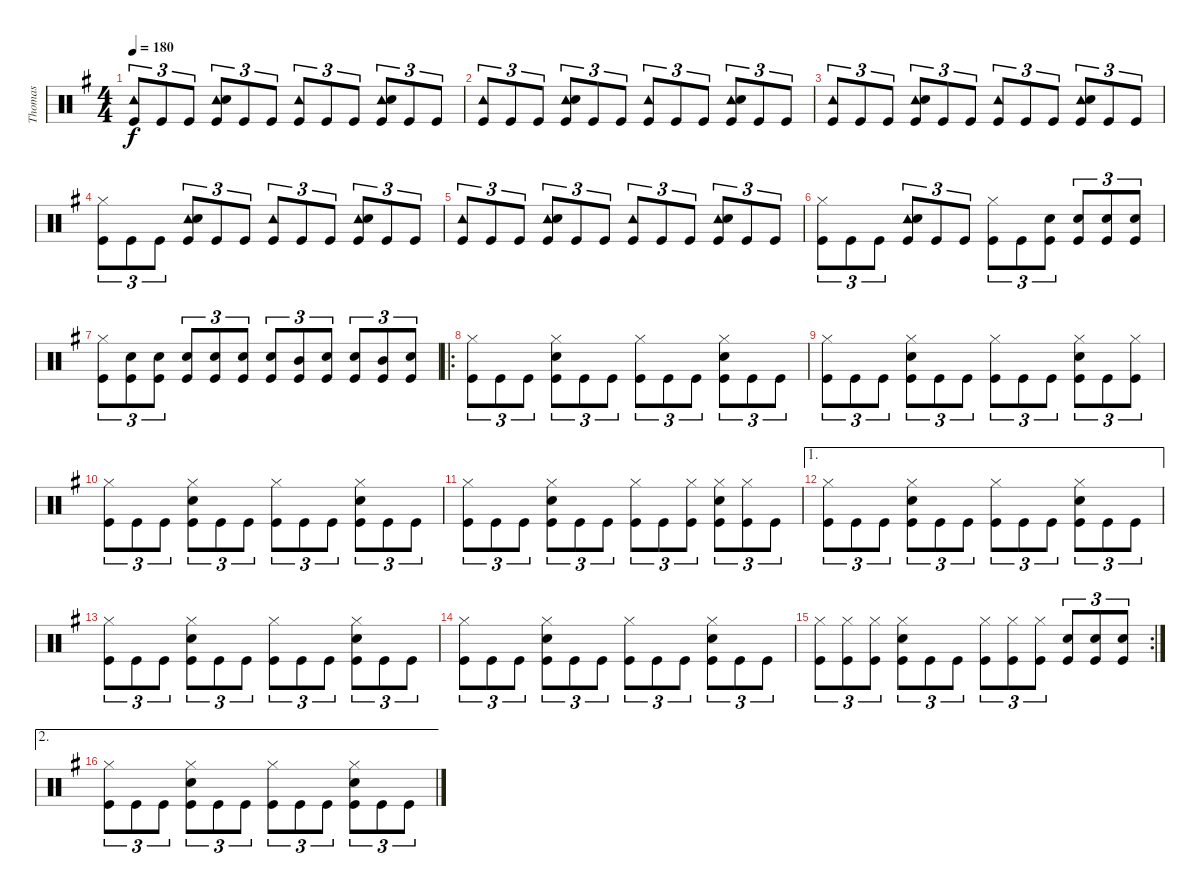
\track ("Thomas" "Thomas") {instrument percussion}
\staff {score}
\articulation defaults
\ts (4 4)
\tempo 180
\clef neutral
\ks g
("Tambourine (hit)" "Kick (hit)").8{tu (3 2) dy f} "Kick (hit)".8{tu (3 2)} "Kick (hit)".8{tu (3 2)} ("Tambourine (hit)" "Snare (hit) 2" "Kick (hit)").8{tu (3 2)} "Kick (hit)".8{tu (3 2)} "Kick (hit)".8{tu (3 2)} ("Tambourine (hit)" "Kick (hit)").8{tu (3 2)} "Kick (hit)".8{tu (3 2)} "Kick (hit)".8{tu (3 2)} ("Tambourine (hit)" "Snare (hit) 2" "Kick (hit)").8{tu (3 2)} "Kick (hit)".8{tu (3 2)} "Kick (hit)".8{tu (3 2)} |
("Tambourine (hit)" "Kick (hit)").8{tu (3 2)} "Kick (hit)".8{tu (3 2)} "Kick (hit)".8{tu (3 2)} ("Tambourine (hit)" "Snare (hit) 2" "Kick (hit)").8{tu (3 2)} "Kick (hit)".8{tu (3 2)} "Kick (hit)".8{tu (3 2)} ("Tambourine (hit)" "Kick (hit)").8{tu (3 2)} "Kick (hit)".8{tu (3 2)} "Kick (hit)".8{tu (3 2)} ("Tambourine (hit)" "Snare (hit) 2" "Kick (hit)").8{tu (3 2)} "Kick (hit)".8{tu (3 2)} "Kick (hit)".8{tu (3 2)} |
("Tambourine (hit)" "Kick (hit)").8{tu (3 2)} "Kick (hit)".8{tu (3 2)} "Kick (hit)".8{tu (3 2)} ("Tambourine (hit)" "Snare (hit) 2" "Kick (hit)").8{tu (3 2)} "Kick (hit)".8{tu (3 2)} "Kick (hit)".8{tu (3 2)} ("Tambourine (hit)" "Kick (hit)").8{tu (3 2)} "Kick (hit)".8{tu (3 2)} "Kick (hit)".8{tu (3 2)} ("Tambourine (hit)" "Snare (hit) 2" "Kick (hit)").8{tu (3 2)} "Kick (hit)".8{tu (3 2)} "Kick (hit)".8{tu (3 2)} |
("Hi-Hat (closed)" "Kick (hit)").8{tu (3 2)} "Kick (hit)".8{tu (3 2)} "Kick (hit)".8{tu (3 2)} ("Tambourine (hit)" "Snare (hit) 2" "Kick (hit)").8{tu (3 2)} "Kick (hit)".8{tu (3 2)} "Kick (hit)".8{tu (3 2)} ("Tambourine (hit)" "Kick (hit)").8{tu (3 2)} "Kick (hit)".8{tu (3 2)} "Kick (hit)".8{tu (3 2)} ("Tambourine (hit)" "Snare (hit) 2" "Kick (hit)").8{tu (3 2)} "Kick (hit)".8{tu (3 2)} "Kick (hit)".8{tu (3 2)} |
("Tambourine (hit)" "Kick (hit)").8{tu (3 2)} "Kick (hit)".8{tu (3 2)} "Kick (hit)".8{tu (3 2)} ("Tambourine (hit)" "Snare (hit) 2" "Kick (hit)").8{tu (3 2)} "Kick (hit)".8{tu (3 2)} "Kick (hit)".8{tu (3 2)} ("Tambourine (hit)" "Kick (hit)").8{tu (3 2)} "Kick (hit)".8{tu (3 2)} "Kick (hit)".8{tu (3 2)} ("Tambourine (hit)" "Snare (hit) 2" "Kick (hit)").8{tu (3 2)} "Kick (hit)".8{tu (3 2)} "Kick (hit)".8{tu (3 2)} |
("Hi-Hat (closed)" "Kick (hit)").8{tu (3 2)} "Kick (hit)".8{tu (3 2)} "Kick (hit)".8{tu (3 2)} ("Tambourine (hit)" "Snare (hit) 2" "Kick (hit)").8{tu (3 2)} "Kick (hit)".8{tu (3 2)} "Kick (hit)".8{tu (3 2)} ("Hi-Hat (closed)" "Kick (hit)").8{tu (3 2)} "Kick (hit)".8{tu (3 2)} ("Snare (hit) 2" "Kick (hit)").8{tu (3 2)} ("Snare (hit) 2" "Kick (hit)").8{tu (3 2)} ("Snare (hit) 2" "Kick (hit)").8{tu (3 2)} ("Snare (hit) 2" "Kick (hit)").8{tu (3 2)} |
("Hi-Hat (closed)" "Kick (hit)").8{tu (3 2)} ("Snare (hit) 2" "Kick (hit)").8{tu (3 2)} ("Snare (hit) 2" "Kick (hit)").8{tu (3 2)} ("Snare (hit) 2" "Kick (hit)").8{tu (3 2)} ("Snare (hit) 2" "Kick (hit)").8{tu (3 2)} ("Snare (hit) 2" "Kick (hit)").8{tu (3 2)} ("Snare (hit) 2" "Kick (hit)").8{tu (3 2)} ("Mid Tom (hit)" "Kick (hit)").8{tu (3 2)} ("Snare (hit) 2" "Kick (hit)").8{tu (3 2)} ("Snare (hit) 2" "Kick (hit)").8{tu (3 2)} ("Mid Tom (hit)" "Kick (hit)").8{tu (3 2)} ("Snare (hit) 2" "Kick (hit)").8{tu (3 2)} |
\ro
("Hi-Hat (closed)" "Kick (hit)").8{tu (3 2)} "Kick (hit)".8{tu (3 2)} "Kick (hit)".8{tu (3 2)} ("Hi-Hat (closed)" "Snare (hit) 2" "Kick (hit)").8{tu (3 2)} "Kick (hit)".8{tu (3 2)} "Kick (hit)".8{tu (3 2)} ("Hi-Hat (closed)" "Kick (hit)").8{tu (3 2)} "Kick (hit)".8{tu (3 2)} "Kick (hit)".8{tu (3 2)} ("Hi-Hat (closed)" "Snare (hit) 2" "Kick (hit)").8{tu (3 2)} "Kick (hit)".8{tu (3 2)} "Kick (hit)".8{tu (3 2)} |
("Hi-Hat (closed)" "Kick (hit)").8{tu (3 2)} "Kick (hit)".8{tu (3 2)} "Kick (hit)".8{tu (3 2)} ("Hi-Hat (closed)" "Snare (hit) 2" "Kick (hit)").8{tu (3 2)} "Kick (hit)".8{tu (3 2)} "Kick (hit)".8{tu (3 2)} ("Hi-Hat (closed)" "Kick (hit)").8{tu (3 2)} "Kick (hit)".8{tu (3 2)} "Kick (hit)".8{tu (3 2)} ("Hi-Hat (closed)" "Snare (hit) 2" "Kick (hit)").8{tu (3 2)} "Kick (hit)".8{tu (3 2)} ("Hi-Hat (closed)" "Kick (hit)").8{tu (3 2)} |
("Hi-Hat (closed)" "Kick (hit)").8{tu (3 2)} "Kick (hit)".8{tu (3 2)} "Kick (hit)".8{tu (3 2)} ("Hi-Hat (closed)" "Snare (hit) 2" "Kick (hit)").8{tu (3 2)} "Kick (hit)".8{tu (3 2)} "Kick (hit)".8{tu (3 2)} ("Hi-Hat (closed)" "Kick (hit)").8{tu (3 2)} "Kick (hit)".8{tu (3 2)} "Kick (hit)".8{tu (3 2)} ("Hi-Hat (closed)" "Snare (hit) 2" "Kick (hit)").8{tu (3 2)} "Kick (hit)".8{tu (3 2)} "Kick (hit)".8{tu (3 2)} |
("Hi-Hat (closed)" "Kick (hit)").8{tu (3 2)} "Kick (hit)".8{tu (3 2)} "Kick (hit)".8{tu (3 2)} ("Hi-Hat (closed)" "Snare (hit) 2" "Kick (hit)").8{tu (3 2)} "Kick (hit)".8{tu (3 2)} "Kick (hit)".8{tu (3 2)} ("Hi-Hat (closed)" "Kick (hit)").8{tu (3 2)} "Kick (hit)".8{tu (3 2)} ("Hi-Hat (closed)" "Kick (hit)").8{tu (3 2)} ("Hi-Hat (closed)" "Snare (hit) 2" "Kick (hit)").8{tu (3 2)} ("Hi-Hat (closed)" "Kick (hit)").8{tu (3 2)} "Kick (hit)".8{tu (3 2)} |
\ae 1
("Hi-Hat (closed)" "Kick (hit)").8{tu (3 2)} "Kick (hit)".8{tu (3 2)} "Kick (hit)".8{tu (3 2)} ("Hi-Hat (closed)" "Snare (hit) 2" "Kick (hit)").8{tu (3 2)} "Kick (hit)".8{tu (3 2)} "Kick (hit)".8{tu (3 2)} ("Hi-Hat (closed)" "Kick (hit)").8{tu (3 2)} "Kick (hit)".8{tu (3 2)} "Kick (hit)".8{tu (3 2)} ("Hi-Hat (closed)" "Snare (hit) 2" "Kick (hit)").8{tu (3 2)} "Kick (hit)".8{tu (3 2)} "Kick (hit)".8{tu (3 2)} |
("Hi-Hat (closed)" "Kick (hit)").8{tu (3 2)} "Kick (hit)".8{tu (3 2)} "Kick (hit)".8{tu (3 2)} ("Hi-Hat (closed)" "Snare (hit) 2" "Kick (hit)").8{tu (3 2)} "Kick (hit)".8{tu (3 2)} "Kick (hit)".8{tu (3 2)} ("Hi-Hat (closed)" "Kick (hit)").8{tu (3 2)} "Kick (hit)".8{tu (3 2)} "Kick (hit)".8{tu (3 2)} ("Hi-Hat (closed)" "Snare (hit) 2" "Kick (hit)").8{tu (3 2)} "Kick (hit)".8{tu (3 2)} "Kick (hit)".8{tu (3 2)} |
("Hi-Hat (closed)" "Kick (hit)").8{tu (3 2)} "Kick (hit)".8{tu (3 2)} "Kick (hit)".8{tu (3 2)} ("Hi-Hat (closed)" "Snare (hit) 2" "Kick (hit)").8{tu (3 2)} "Kick (hit)".8{tu (3 2)} "Kick (hit)".8{tu (3 2)} ("Hi-Hat (closed)" "Kick (hit)").8{tu (3 2)} "Kick (hit)".8{tu (3 2)} "Kick (hit)".8{tu (3 2)} ("Hi-Hat (closed)" "Snare (hit) 2" "Kick (hit)").8{tu (3 2)} "Kick (hit)".8{tu (3 2)} "Kick (hit)".8{tu (3 2)} |
\rc 2
("Hi-Hat (closed)" "Kick (hit)").8{tu (3 2)} ("Hi-Hat (closed)" "Kick (hit)").8{tu (3 2)} ("Hi-Hat (closed)" "Kick (hit)").8{tu (3 2)} ("Hi-Hat (closed)" "Snare (hit) 2" "Kick (hit)").8{tu (3 2)} "Kick (hit)".8{tu (3 2)} "Kick (hit)".8{tu (3 2)} ("Hi-Hat (closed)" "Kick (hit)").8{tu (3 2)} ("Hi-Hat (closed)" "Kick (hit)").8{tu (3 2)} ("Hi-Hat (closed)" "Kick (hit)").8{tu (3 2)} ("Snare (hit) 2" "Kick (hit)").8{tu (3 2)} ("Snare (hit) 2" "Kick (hit)").8{tu (3 2)} ("Snare (hit) 2" "Kick (hit)").8{tu (3 2)} |
\ae 2
("Hi-Hat (closed)" "Kick (hit)").8{tu (3 2)} "Kick (hit)".8{tu (3 2)} "Kick (hit)".8{tu (3 2)} ("Hi-Hat (closed)" "Snare (hit) 2" "Kick (hit)").8{tu (3 2)} "Kick (hit)".8{tu (3 2)} "Kick (hit)".8{tu (3 2)} ("Hi-Hat (closed)" "Kick (hit)").8{tu (3 2)} "Kick (hit)".8{tu (3 2)} "Kick (hit)".8{tu (3 2)} ("Hi-Hat (closed)" "Snare (hit) 2" "Kick (hit)").8{tu (3 2)} "Kick (hit)".8{tu (3 2)} "Kick (hit)".8{tu (3 2)}
